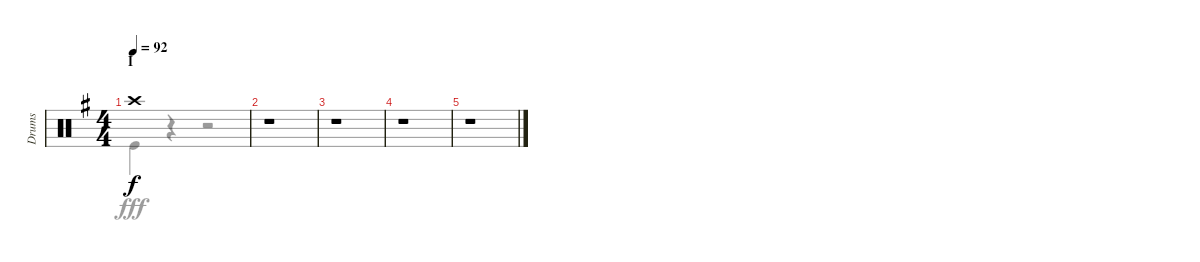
\track ("Drums" "Drums") {instrument percussion}
\staff {score}
\articulation defaults
\voice
\ts (4 4)
\section ("" "I")
\tempo 92
\clef neutral
\ks g "Crash high (hit)".1{dy f}
|
r.1 |
r.1 |
r.1 |
r.1
\voice
\clef neutral
\ottava regular
\simile none
\ks g "Kick (hit)".4{dy fff}
r.4 r.2 |
r.1 |
r.1 |
r.1 |
r.1
